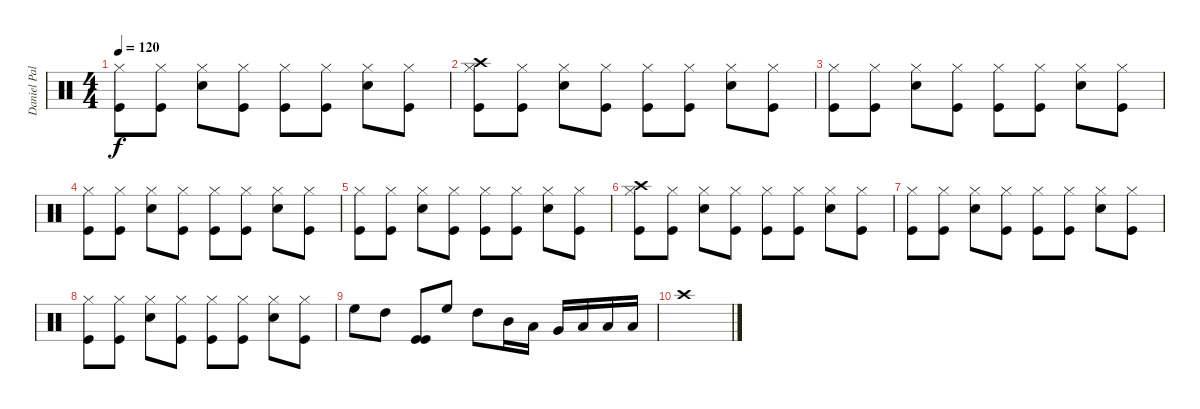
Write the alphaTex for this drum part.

\track ("Daniel Pal" "Daniel Pal") {instrument percussion}
\staff {score}
\articulation defaults
\ts (4 4)
\tempo 120
\clef neutral
\ks c
("Hi-Hat (closed)" "Kick (hit)").8{dy f} ("Hi-Hat (closed)" "Kick (hit)").8 ("Hi-Hat (closed)" "Electric Snare (hit)").8 ("Hi-Hat (closed)" "Kick (hit)").8 ("Hi-Hat (closed)" "Kick (hit)").8 ("Hi-Hat (closed)" "Kick (hit)").8 ("Hi-Hat (closed)" "Electric Snare (hit)").8 ("Hi-Hat (closed)" "Kick (hit)").8 |
("Crash high (hit)" "Hi-Hat (closed)" "Kick (hit)").8 ("Hi-Hat (closed)" "Kick (hit)").8 ("Hi-Hat (closed)" "Electric Snare (hit)").8 ("Hi-Hat (closed)" "Kick (hit)").8 ("Hi-Hat (closed)" "Kick (hit)").8 ("Hi-Hat (closed)" "Kick (hit)").8 ("Hi-Hat (closed)" "Electric Snare (hit)").8 ("Hi-Hat (closed)" "Kick (hit)").8 |
("Hi-Hat (closed)" "Kick (hit)").8 ("Hi-Hat (closed)" "Kick (hit)").8 ("Hi-Hat (closed)" "Electric Snare (hit)").8 ("Hi-Hat (closed)" "Kick (hit)").8 ("Hi-Hat (closed)" "Kick (hit)").8 ("Hi-Hat (closed)" "Kick (hit)").8 ("Hi-Hat (closed)" "Electric Snare (hit)").8 ("Hi-Hat (closed)" "Kick (hit)").8 |
("Hi-Hat (closed)" "Kick (hit)").8 ("Hi-Hat (closed)" "Kick (hit)").8 ("Hi-Hat (closed)" "Electric Snare (hit)").8 ("Hi-Hat (closed)" "Kick (hit)").8 ("Hi-Hat (closed)" "Kick (hit)").8 ("Hi-Hat (closed)" "Kick (hit)").8 ("Hi-Hat (closed)" "Electric Snare (hit)").8 ("Hi-Hat (closed)" "Kick (hit)").8 |
("Hi-Hat (closed)" "Kick (hit)").8 ("Hi-Hat (closed)" "Kick (hit)").8 ("Hi-Hat (closed)" "Electric Snare (hit)").8 ("Hi-Hat (closed)" "Kick (hit)").8 ("Hi-Hat (closed)" "Kick (hit)").8 ("Hi-Hat (closed)" "Kick (hit)").8 ("Hi-Hat (closed)" "Electric Snare (hit)").8 ("Hi-Hat (closed)" "Kick (hit)").8 |
("Crash high (hit)" "Hi-Hat (closed)" "Kick (hit)").8 ("Hi-Hat (closed)" "Kick (hit)").8 ("Hi-Hat (closed)" "Electric Snare (hit)").8 ("Hi-Hat (closed)" "Kick (hit)").8 ("Hi-Hat (closed)" "Kick (hit)").8 ("Hi-Hat (closed)" "Kick (hit)").8 ("Hi-Hat (closed)" "Electric Snare (hit)").8 ("Hi-Hat (closed)" "Kick (hit)").8 |
("Hi-Hat (closed)" "Kick (hit)").8 ("Hi-Hat (closed)" "Kick (hit)").8 ("Hi-Hat (closed)" "Electric Snare (hit)").8 ("Hi-Hat (closed)" "Kick (hit)").8 ("Hi-Hat (closed)" "Kick (hit)").8 ("Hi-Hat (closed)" "Kick (hit)").8 ("Hi-Hat (closed)" "Electric Snare (hit)").8 ("Hi-Hat (closed)" "Kick (hit)").8 |
("Hi-Hat (closed)" "Kick (hit)").8 ("Hi-Hat (closed)" "Kick (hit)").8 ("Hi-Hat (closed)" "Electric Snare (hit)").8 ("Hi-Hat (closed)" "Kick (hit)").8 ("Hi-Hat (closed)" "Kick (hit)").8 ("Hi-Hat (closed)" "Kick (hit)").8 ("Hi-Hat (closed)" "Electric Snare (hit)").8 ("Hi-Hat (closed)" "Kick (hit)").8 |
"High Floor Tom (hit)".8 "High Tom (hit)".8 ("Kick (hit)" "Kick (hit)").8 "High Floor Tom (hit)".8 "High Tom (hit)".8 "Mid Tom (hit)".16 "Low Tom (hit)".16 "Very Low Tom (hit)".16 "Low Floor Tom (hit)".16 "Low Floor Tom (hit)".16 "Low Floor Tom (hit)".16 |
"Crash high (hit)".1
